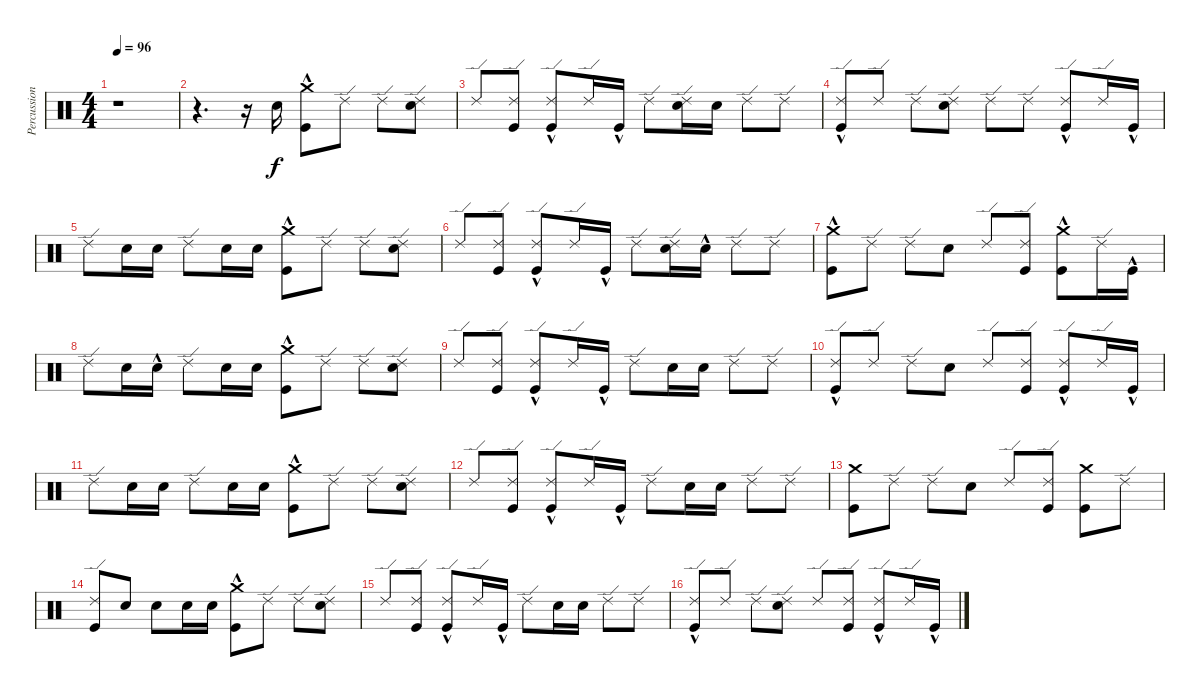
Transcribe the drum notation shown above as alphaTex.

\track ("Percussion" "Percussion") {instrument percussion}
\staff {score}
\articulation defaults
\ts (4 4)
\tempo 96
\clef neutral
\ks c
r.1{dy f} |
r.4{d} r.16 "Electric Snare (hit)".16 ("Kick (hit)"{hac} "Crash medium (hit)").8 "Ride (edge) 2".8 "Ride (edge) 2".8 ("Ride (edge) 2" "Electric Snare (hit)").8 |
"Ride (edge) 2".8 ("Kick (hit)" "Ride (edge) 2").8 ("Kick (hit)"{hac} "Ride (edge) 2").8 "Ride (edge) 2".16 "Kick (hit)"{hac}.16 "Ride (edge) 2".8 ("Ride (edge) 2" "Electric Snare (hit)").16 "Electric Snare (hit)".16 "Ride (edge) 2".8 "Ride (edge) 2".8 |
("Kick (hit)"{hac} "Ride (edge) 2").8 "Ride (edge) 2".8 "Ride (edge) 2".8 ("Electric Snare (hit)" "Ride (edge) 2").8 "Ride (edge) 2".8 "Ride (edge) 2".8 ("Kick (hit)"{hac} "Ride (edge) 2").8 "Ride (edge) 2".16 "Kick (hit)"{hac}.16 |
"Ride (edge) 2".8 "Electric Snare (hit)".16 "Electric Snare (hit)".16 "Ride (edge) 2".8 "Electric Snare (hit)".16 "Electric Snare (hit)".16 ("Kick (hit)"{hac} "Crash medium (hit)").8 "Ride (edge) 2".8 "Ride (edge) 2".8 ("Ride (edge) 2" "Electric Snare (hit)").8 |
"Ride (edge) 2".8 ("Kick (hit)" "Ride (edge) 2").8 ("Kick (hit)"{hac} "Ride (edge) 2").8 "Ride (edge) 2".16 "Kick (hit)"{hac}.16 "Ride (edge) 2".8 ("Ride (edge) 2" "Electric Snare (hit)").16 "Electric Snare (hit)"{hac}.16 "Ride (edge) 2".8 "Ride (edge) 2".8 |
("Kick (hit)"{hac} "Crash medium (hit)").8 "Ride (edge) 2".8 "Ride (edge) 2".8 "Electric Snare (hit)".8 "Ride (edge) 2".8 ("Kick (hit)" "Ride (edge) 2").8 ("Crash medium (hit)" "Kick (hit)"{hac}).8 "Ride (edge) 2".16 "Kick (hit)"{hac}.16 |
"Ride (edge) 2".8 "Electric Snare (hit)".16 "Electric Snare (hit)"{hac}.16 "Ride (edge) 2".8 "Electric Snare (hit)".16 "Electric Snare (hit)".16 ("Kick (hit)"{hac} "Crash medium (hit)").8 "Ride (edge) 2".8 "Ride (edge) 2".8 ("Ride (edge) 2" "Electric Snare (hit)").8 |
"Ride (edge) 2".8 ("Kick (hit)" "Ride (edge) 2").8 ("Kick (hit)"{hac} "Ride (edge) 2").8 "Ride (edge) 2".16 "Kick (hit)"{hac}.16 "Ride (edge) 2".8 "Electric Snare (hit)".16 "Electric Snare (hit)".16 "Ride (edge) 2".8 "Ride (edge) 2".8 |
("Kick (hit)"{hac} "Ride (edge) 2").8 "Ride (edge) 2".8 "Ride (edge) 2".8 "Electric Snare (hit)".8 "Ride (edge) 2".8 ("Kick (hit)" "Ride (edge) 2").8 ("Kick (hit)"{hac} "Ride (edge) 2").8 "Ride (edge) 2".16 "Kick (hit)"{hac}.16 |
"Ride (edge) 2".8 "Electric Snare (hit)".16 "Electric Snare (hit)".16 "Ride (edge) 2".8 "Electric Snare (hit)".16 "Electric Snare (hit)".16 ("Kick (hit)"{hac} "Crash medium (hit)").8 "Ride (edge) 2".8 "Ride (edge) 2".8 ("Electric Snare (hit)" "Ride (edge) 2").8 |
"Ride (edge) 2".8 ("Kick (hit)" "Ride (edge) 2").8 ("Kick (hit)"{hac} "Ride (edge) 2").8 "Ride (edge) 2".16 "Kick (hit)"{hac}.16 "Ride (edge) 2".8 "Electric Snare (hit)".16 "Electric Snare (hit)".16 "Ride (edge) 2".8 "Ride (edge) 2".8 |
("Kick (hit)" "Crash medium (hit)").8 "Ride (edge) 2".8 "Ride (edge) 2".8 "Electric Snare (hit)".8 "Ride (edge) 2".8 ("Kick (hit)" "Ride (edge) 2").8 ("Kick (hit)" "Crash medium (hit)").8 "Ride (edge) 2".8 |
("Kick (hit)" "Ride (edge) 2").8 "Electric Snare (hit)".8 "Electric Snare (hit)".8 "Electric Snare (hit)".16 "Electric Snare (hit)".16 ("Kick (hit)"{hac} "Crash medium (hit)").8 "Ride (edge) 2".8 "Ride (edge) 2".8 ("Electric Snare (hit)" "Ride (edge) 2").8 |
"Ride (edge) 2".8 ("Kick (hit)" "Ride (edge) 2").8 ("Kick (hit)"{hac} "Ride (edge) 2").8 "Ride (edge) 2".16 "Kick (hit)"{hac}.16 "Ride (edge) 2".8 "Electric Snare (hit)".16 "Electric Snare (hit)".16 "Ride (edge) 2".8 "Ride (edge) 2".8 |
("Kick (hit)"{hac} "Ride (edge) 2").8 "Ride (edge) 2".8 "Ride (edge) 2".8 ("Electric Snare (hit)" "Ride (edge) 2").8 "Ride (edge) 2".8 ("Kick (hit)" "Ride (edge) 2").8 ("Kick (hit)"{hac} "Ride (edge) 2").8 "Ride (edge) 2".16 "Kick (hit)"{hac}.16
